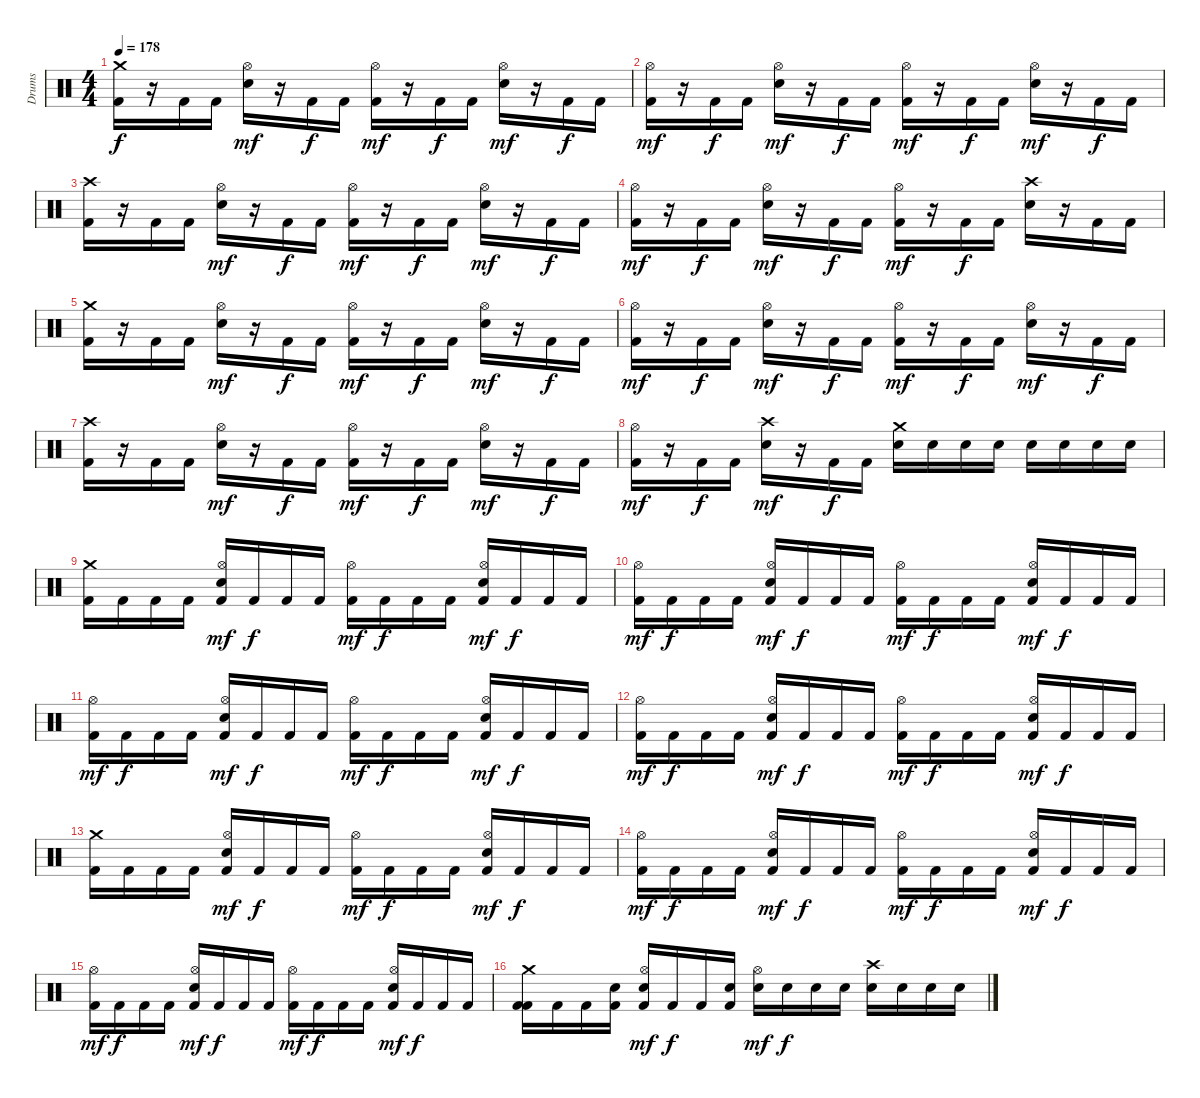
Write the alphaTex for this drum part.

\track ("Drums" "Drums") {instrument percussion}
\staff {score}
\articulation defaults
\ts (4 4)
\tempo 178
\clef neutral
\ks c
("Crash medium (hit)" "Kick (hit) 2").16{dy f} r.16 "Kick (hit) 2".16 "Kick (hit) 2".16 ("Hi-Hat (open)" "Snare (hit) 2").16{dy mf} r.16 "Kick (hit) 2".16{dy f} "Kick (hit) 2".16 ("Hi-Hat (open)" "Kick (hit) 2").16{dy mf} r.16 "Kick (hit) 2".16{dy f} "Kick (hit) 2".16 ("Hi-Hat (open)" "Snare (hit) 2").16{dy mf} r.16 "Kick (hit) 2".16{dy f} "Kick (hit) 2".16 |
("Hi-Hat (open)" "Kick (hit) 2").16{dy mf} r.16 "Kick (hit) 2".16{dy f} "Kick (hit) 2".16 ("Hi-Hat (open)" "Snare (hit) 2").16{dy mf} r.16 "Kick (hit) 2".16{dy f} "Kick (hit) 2".16 ("Hi-Hat (open)" "Kick (hit) 2").16{dy mf} r.16 "Kick (hit) 2".16{dy f} "Kick (hit) 2".16 ("Hi-Hat (open)" "Snare (hit) 2").16{dy mf} r.16 "Kick (hit) 2".16{dy f} "Kick (hit) 2".16 |
("Crash high (hit)" "Kick (hit) 2").16 r.16 "Kick (hit) 2".16 "Kick (hit) 2".16 ("Hi-Hat (open)" "Snare (hit) 2").16{dy mf} r.16 "Kick (hit) 2".16{dy f} "Kick (hit) 2".16 ("Hi-Hat (open)" "Kick (hit) 2").16{dy mf} r.16 "Kick (hit) 2".16{dy f} "Kick (hit) 2".16 ("Hi-Hat (open)" "Snare (hit) 2").16{dy mf} r.16 "Kick (hit) 2".16{dy f} "Kick (hit) 2".16 |
("Hi-Hat (open)" "Kick (hit) 2").16{dy mf} r.16 "Kick (hit) 2".16{dy f} "Kick (hit) 2".16 ("Hi-Hat (open)" "Snare (hit) 2").16{dy mf} r.16 "Kick (hit) 2".16{dy f} "Kick (hit) 2".16 ("Hi-Hat (open)" "Kick (hit) 2").16{dy mf} r.16 "Kick (hit) 2".16{dy f} "Kick (hit) 2".16 ("Crash high (hit)" "Snare (hit) 2").16 r.16 "Kick (hit) 2".16 "Kick (hit) 2".16 |
("Crash medium (hit)" "Kick (hit) 2").16 r.16 "Kick (hit) 2".16 "Kick (hit) 2".16 ("Hi-Hat (open)" "Snare (hit) 2").16{dy mf} r.16 "Kick (hit) 2".16{dy f} "Kick (hit) 2".16 ("Hi-Hat (open)" "Kick (hit) 2").16{dy mf} r.16 "Kick (hit) 2".16{dy f} "Kick (hit) 2".16 ("Hi-Hat (open)" "Snare (hit) 2").16{dy mf} r.16 "Kick (hit) 2".16{dy f} "Kick (hit) 2".16 |
("Hi-Hat (open)" "Kick (hit) 2").16{dy mf} r.16 "Kick (hit) 2".16{dy f} "Kick (hit) 2".16 ("Hi-Hat (open)" "Snare (hit) 2").16{dy mf} r.16 "Kick (hit) 2".16{dy f} "Kick (hit) 2".16 ("Hi-Hat (open)" "Kick (hit) 2").16{dy mf} r.16 "Kick (hit) 2".16{dy f} "Kick (hit) 2".16 ("Hi-Hat (open)" "Snare (hit) 2").16{dy mf} r.16 "Kick (hit) 2".16{dy f} "Kick (hit) 2".16 |
("Crash high (hit)" "Kick (hit) 2").16 r.16 "Kick (hit) 2".16 "Kick (hit) 2".16 ("Hi-Hat (open)" "Snare (hit) 2").16{dy mf} r.16 "Kick (hit) 2".16{dy f} "Kick (hit) 2".16 ("Hi-Hat (open)" "Kick (hit) 2").16{dy mf} r.16 "Kick (hit) 2".16{dy f} "Kick (hit) 2".16 ("Hi-Hat (open)" "Snare (hit) 2").16{dy mf} r.16 "Kick (hit) 2".16{dy f} "Kick (hit) 2".16 |
("Hi-Hat (open)" "Kick (hit) 2").16{dy mf} r.16 "Kick (hit) 2".16{dy f} "Kick (hit) 2".16 ("Crash high (hit)" "Snare (hit) 2").16{dy mf} r.16 "Kick (hit) 2".16{dy f} "Kick (hit) 2".16 ("Crash medium (hit)" "Snare (hit) 2").16 "Snare (hit) 2".16 "Snare (hit) 2".16 "Snare (hit) 2".16 "Snare (hit) 2".16 "Snare (hit) 2".16 "Snare (hit) 2".16 "Snare (hit) 2".16 |
("Crash medium (hit)" "Kick (hit) 2").16 "Kick (hit) 2".16 "Kick (hit) 2".16 "Kick (hit) 2".16 ("Hi-Hat (open)" "Snare (hit) 2" "Kick (hit) 2").16{dy mf} "Kick (hit) 2".16{dy f} "Kick (hit) 2".16 "Kick (hit) 2".16 ("Hi-Hat (open)" "Kick (hit) 2").16{dy mf} "Kick (hit) 2".16{dy f} "Kick (hit) 2".16 "Kick (hit) 2".16 ("Hi-Hat (open)" "Snare (hit) 2" "Kick (hit) 2").16{dy mf} "Kick (hit) 2".16{dy f} "Kick (hit) 2".16 "Kick (hit) 2".16 |
("Hi-Hat (open)" "Kick (hit) 2").16{dy mf} "Kick (hit) 2".16{dy f} "Kick (hit) 2".16 "Kick (hit) 2".16 ("Hi-Hat (open)" "Snare (hit) 2" "Kick (hit) 2").16{dy mf} "Kick (hit) 2".16{dy f} "Kick (hit) 2".16 "Kick (hit) 2".16 ("Hi-Hat (open)" "Kick (hit) 2").16{dy mf} "Kick (hit) 2".16{dy f} "Kick (hit) 2".16 "Kick (hit) 2".16 ("Hi-Hat (open)" "Snare (hit) 2" "Kick (hit) 2").16{dy mf} "Kick (hit) 2".16{dy f} "Kick (hit) 2".16 "Kick (hit) 2".16 |
("Hi-Hat (open)" "Kick (hit) 2").16{dy mf} "Kick (hit) 2".16{dy f} "Kick (hit) 2".16 "Kick (hit) 2".16 ("Hi-Hat (open)" "Snare (hit) 2" "Kick (hit) 2").16{dy mf} "Kick (hit) 2".16{dy f} "Kick (hit) 2".16 "Kick (hit) 2".16 ("Hi-Hat (open)" "Kick (hit) 2").16{dy mf} "Kick (hit) 2".16{dy f} "Kick (hit) 2".16 "Kick (hit) 2".16 ("Hi-Hat (open)" "Snare (hit) 2" "Kick (hit) 2").16{dy mf} "Kick (hit) 2".16{dy f} "Kick (hit) 2".16 "Kick (hit) 2".16 |
("Hi-Hat (open)" "Kick (hit) 2").16{dy mf} "Kick (hit) 2".16{dy f} "Kick (hit) 2".16 "Kick (hit) 2".16 ("Hi-Hat (open)" "Snare (hit) 2" "Kick (hit) 2").16{dy mf} "Kick (hit) 2".16{dy f} "Kick (hit) 2".16 "Kick (hit) 2".16 ("Hi-Hat (open)" "Kick (hit) 2").16{dy mf} "Kick (hit) 2".16{dy f} "Kick (hit) 2".16 "Kick (hit) 2".16 ("Hi-Hat (open)" "Snare (hit) 2" "Kick (hit) 2").16{dy mf} "Kick (hit) 2".16{dy f} "Kick (hit) 2".16 "Kick (hit) 2".16 |
("Crash medium (hit)" "Kick (hit) 2").16 "Kick (hit) 2".16 "Kick (hit) 2".16 "Kick (hit) 2".16 ("Hi-Hat (open)" "Snare (hit) 2" "Kick (hit) 2").16{dy mf} "Kick (hit) 2".16{dy f} "Kick (hit) 2".16 "Kick (hit) 2".16 ("Hi-Hat (open)" "Kick (hit) 2").16{dy mf} "Kick (hit) 2".16{dy f} "Kick (hit) 2".16 "Kick (hit) 2".16 ("Hi-Hat (open)" "Snare (hit) 2" "Kick (hit) 2").16{dy mf} "Kick (hit) 2".16{dy f} "Kick (hit) 2".16 "Kick (hit) 2".16 |
("Hi-Hat (open)" "Kick (hit) 2").16{dy mf} "Kick (hit) 2".16{dy f} "Kick (hit) 2".16 "Kick (hit) 2".16 ("Hi-Hat (open)" "Snare (hit) 2" "Kick (hit) 2").16{dy mf} "Kick (hit) 2".16{dy f} "Kick (hit) 2".16 "Kick (hit) 2".16 ("Hi-Hat (open)" "Kick (hit) 2").16{dy mf} "Kick (hit) 2".16{dy f} "Kick (hit) 2".16 "Kick (hit) 2".16 ("Hi-Hat (open)" "Snare (hit) 2" "Kick (hit) 2").16{dy mf} "Kick (hit) 2".16{dy f} "Kick (hit) 2".16 "Kick (hit) 2".16 |
("Hi-Hat (open)" "Kick (hit) 2").16{dy mf} "Kick (hit) 2".16{dy f} "Kick (hit) 2".16 "Kick (hit) 2".16 ("Hi-Hat (open)" "Snare (hit) 2" "Kick (hit) 2").16{dy mf} "Kick (hit) 2".16{dy f} "Kick (hit) 2".16 "Kick (hit) 2".16 ("Hi-Hat (open)" "Kick (hit) 2").16{dy mf} "Kick (hit) 2".16{dy f} "Kick (hit) 2".16 "Kick (hit) 2".16 ("Hi-Hat (open)" "Snare (hit) 2" "Kick (hit) 2").16{dy mf} "Kick (hit) 2".16{dy f} "Kick (hit) 2".16 "Kick (hit) 2".16 |
("Crash medium (hit)" "Kick (hit) 2" "Kick (hit) 2").16 "Kick (hit) 2".16 "Kick (hit) 2".16 ("Snare (hit) 2" "Kick (hit) 2").16 ("Hi-Hat (open)" "Snare (hit) 2" "Kick (hit) 2").16{dy mf} "Kick (hit) 2".16{dy f} "Kick (hit) 2".16 ("Snare (hit) 2" "Kick (hit) 2").16 ("Hi-Hat (open)" "Snare (hit) 2").16{dy mf} "Snare (hit) 2".16{dy f} "Snare (hit) 2".16 "Snare (hit) 2".16 ("Crash high (hit)" "Snare (hit) 2").16 "Snare (hit) 2".16 "Snare (hit) 2".16 "Snare (hit) 2".16
